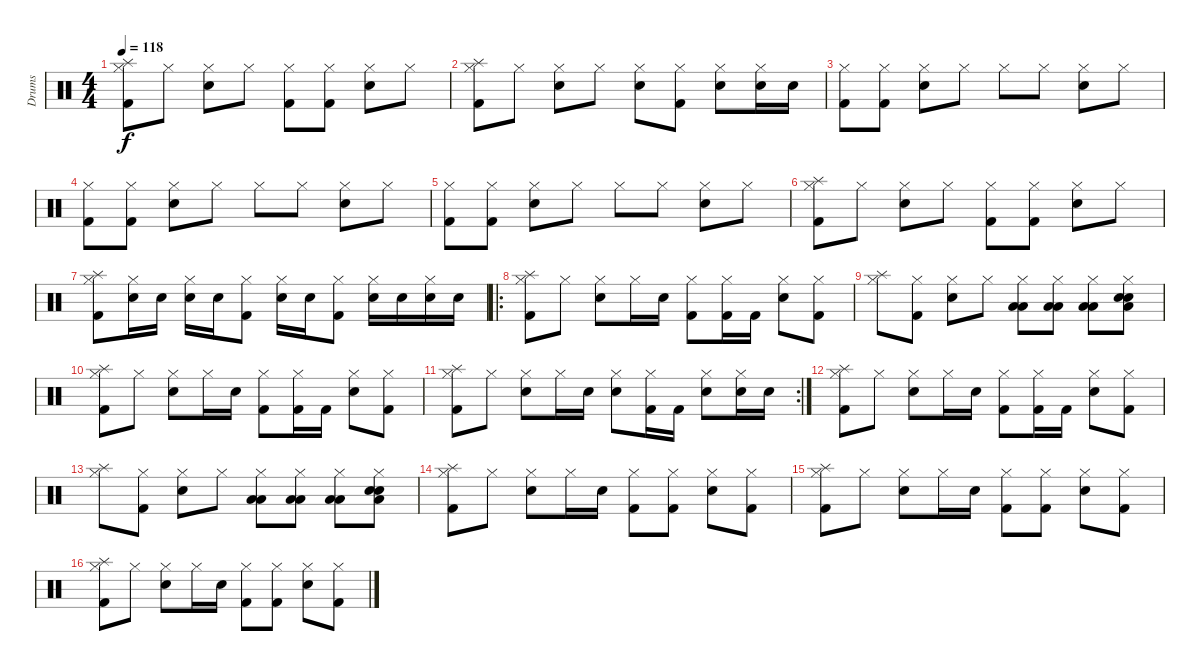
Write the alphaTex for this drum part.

\track ("Drums" "Drums") {instrument percussion}
\staff {score}
\articulation defaults
\ts (4 4)
\tempo 118
\clef neutral
\ks c
("Splash (hit)" "Hi-Hat (closed)" "Kick (hit) 2").8{dy f} "Hi-Hat (closed)".8 ("Hi-Hat (closed)" "Snare (hit) 2").8 "Hi-Hat (closed)".8 ("Hi-Hat (closed)" "Kick (hit) 2").8 ("Hi-Hat (closed)" "Kick (hit) 2").8 ("Hi-Hat (closed)" "Snare (hit) 2").8 "Hi-Hat (closed)".8 |
("Splash (hit)" "Hi-Hat (closed)" "Kick (hit) 2").8 "Hi-Hat (closed)".8 ("Hi-Hat (closed)" "Snare (hit) 2").8 "Hi-Hat (closed)".8 ("Hi-Hat (closed)" "Snare (hit) 2").8 ("Hi-Hat (closed)" "Kick (hit) 2").8 ("Hi-Hat (closed)" "Snare (hit) 2").8 ("Hi-Hat (closed)" "Snare (hit) 2").16 "Snare (hit) 2".16 |
("Hi-Hat (closed)" "Kick (hit) 2").8 ("Hi-Hat (closed)" "Kick (hit) 2").8 ("Hi-Hat (closed)" "Snare (hit) 2").8 "Hi-Hat (closed)".8 "Hi-Hat (closed)".8 "Hi-Hat (closed)".8 ("Hi-Hat (closed)" "Snare (hit) 2").8 "Hi-Hat (closed)".8 |
("Hi-Hat (closed)" "Kick (hit) 2").8 ("Hi-Hat (closed)" "Kick (hit) 2").8 ("Hi-Hat (closed)" "Snare (hit) 2").8 "Hi-Hat (closed)".8 "Hi-Hat (closed)".8 "Hi-Hat (closed)".8 ("Hi-Hat (closed)" "Snare (hit) 2").8 "Hi-Hat (closed)".8 |
("Hi-Hat (closed)" "Kick (hit) 2").8 ("Hi-Hat (closed)" "Kick (hit) 2").8 ("Hi-Hat (closed)" "Snare (hit) 2").8 "Hi-Hat (closed)".8 "Hi-Hat (closed)".8 "Hi-Hat (closed)".8 ("Hi-Hat (closed)" "Snare (hit) 2").8 "Hi-Hat (closed)".8 |
("Splash (hit)" "Hi-Hat (closed)" "Kick (hit) 2").8 "Hi-Hat (closed)".8 ("Hi-Hat (closed)" "Snare (hit) 2").8 "Hi-Hat (closed)".8 ("Hi-Hat (closed)" "Kick (hit) 2").8 ("Hi-Hat (closed)" "Kick (hit) 2").8 ("Hi-Hat (closed)" "Snare (hit) 2").8 "Hi-Hat (closed)".8 |
("Splash (hit)" "Hi-Hat (closed)" "Kick (hit) 2").8 ("Hi-Hat (closed)" "Snare (hit) 2").16 "Snare (hit) 2".16 ("Hi-Hat (closed)" "Snare (hit) 2").16 "Snare (hit) 2".16 ("Hi-Hat (closed)" "Kick (hit) 2").8 ("Hi-Hat (closed)" "Snare (hit) 2").16 "Snare (hit) 2".16 ("Hi-Hat (closed)" "Kick (hit) 2").8 ("Hi-Hat (closed)" "Snare (hit) 2").16 "Snare (hit) 2".16 ("Hi-Hat (closed)" "Snare (hit) 2").16 "Snare (hit) 2".16 |
\ro
("Splash (hit)" "Hi-Hat (closed)" "Kick (hit) 2").8 "Hi-Hat (closed)".8 ("Hi-Hat (closed)" "Snare (hit) 2").8 "Hi-Hat (closed)".16 "Snare (hit) 2".16 ("Hi-Hat (closed)" "Kick (hit) 2").8 ("Hi-Hat (closed)" "Kick (hit) 2").16 "Kick (hit) 2".16 ("Hi-Hat (closed)" "Snare (hit) 2").8 ("Hi-Hat (closed)" "Kick (hit) 2").8 |
("Splash (hit)" "Hi-Hat (closed)").8 ("Hi-Hat (closed)" "Kick (hit) 2").8 ("Hi-Hat (closed)" "Snare (hit) 2").8 "Hi-Hat (closed)".8 ("Low Tom (hit)" "Hi-Hat (closed)" "Low Floor Tom (hit)").8 ("Low Tom (hit)" "Hi-Hat (closed)" "Low Floor Tom (hit)").8 ("Low Tom (hit)" "Hi-Hat (closed)" "Low Floor Tom (hit)").8 ("Snare (hit) 2" "Hi-Hat (closed)" "Low Floor Tom (hit)" "Snare (hit) 2").8 |
("Splash (hit)" "Hi-Hat (closed)" "Kick (hit) 2").8 "Hi-Hat (closed)".8 ("Hi-Hat (closed)" "Snare (hit) 2").8 "Hi-Hat (closed)".16 "Snare (hit) 2".16 ("Hi-Hat (closed)" "Kick (hit) 2").8 ("Hi-Hat (closed)" "Kick (hit) 2").16 "Kick (hit) 2".16 ("Hi-Hat (closed)" "Snare (hit) 2").8 ("Hi-Hat (closed)" "Kick (hit) 2").8 |
\rc 2
("Splash (hit)" "Hi-Hat (closed)" "Kick (hit) 2").8 "Hi-Hat (closed)".8 ("Hi-Hat (closed)" "Snare (hit) 2").8 "Hi-Hat (closed)".16 "Snare (hit) 2".16 ("Hi-Hat (closed)" "Snare (hit) 2").8 ("Hi-Hat (closed)" "Kick (hit) 2").16 "Kick (hit) 2".16 ("Hi-Hat (closed)" "Snare (hit) 2").8 ("Hi-Hat (closed)" "Snare (hit) 2").16 "Snare (hit) 2".16 |
("Splash (hit)" "Hi-Hat (closed)" "Kick (hit) 2").8 "Hi-Hat (closed)".8 ("Hi-Hat (closed)" "Snare (hit) 2").8 "Hi-Hat (closed)".16 "Snare (hit) 2".16 ("Hi-Hat (closed)" "Kick (hit) 2").8 ("Hi-Hat (closed)" "Kick (hit) 2").16 "Kick (hit) 2".16 ("Hi-Hat (closed)" "Snare (hit) 2").8 ("Hi-Hat (closed)" "Kick (hit) 2").8 |
("Splash (hit)" "Hi-Hat (closed)").8 ("Hi-Hat (closed)" "Kick (hit) 2").8 ("Hi-Hat (closed)" "Snare (hit) 2").8 "Hi-Hat (closed)".8 ("Low Tom (hit)" "Hi-Hat (closed)" "Low Floor Tom (hit)").8 ("Low Tom (hit)" "Hi-Hat (closed)" "Low Floor Tom (hit)").8 ("Low Tom (hit)" "Hi-Hat (closed)" "Low Floor Tom (hit)").8 ("Snare (hit) 2" "Hi-Hat (closed)" "Low Floor Tom (hit)" "Snare (hit) 2").8 |
("Splash (hit)" "Hi-Hat (closed)" "Kick (hit) 2").8 "Hi-Hat (closed)".8 ("Hi-Hat (closed)" "Snare (hit) 2").8 "Hi-Hat (closed)".16 "Snare (hit) 2".16 ("Hi-Hat (closed)" "Kick (hit) 2").8 ("Hi-Hat (closed)" "Kick (hit) 2").8 ("Hi-Hat (closed)" "Snare (hit) 2").8 ("Hi-Hat (closed)" "Kick (hit) 2").8 |
("Splash (hit)" "Hi-Hat (closed)" "Kick (hit) 2").8 "Hi-Hat (closed)".8 ("Hi-Hat (closed)" "Snare (hit) 2").8 "Hi-Hat (closed)".16 "Snare (hit) 2".16 ("Hi-Hat (closed)" "Kick (hit) 2").8 ("Hi-Hat (closed)" "Kick (hit) 2").8 ("Hi-Hat (closed)" "Snare (hit) 2").8 ("Hi-Hat (closed)" "Kick (hit) 2").8 |
("Splash (hit)" "Hi-Hat (closed)" "Kick (hit) 2").8 "Hi-Hat (closed)".8 ("Hi-Hat (closed)" "Snare (hit) 2").8 "Hi-Hat (closed)".16 "Snare (hit) 2".16 ("Hi-Hat (closed)" "Kick (hit) 2").8 ("Hi-Hat (closed)" "Kick (hit) 2").8 ("Hi-Hat (closed)" "Snare (hit) 2").8 ("Hi-Hat (closed)" "Kick (hit) 2").8
